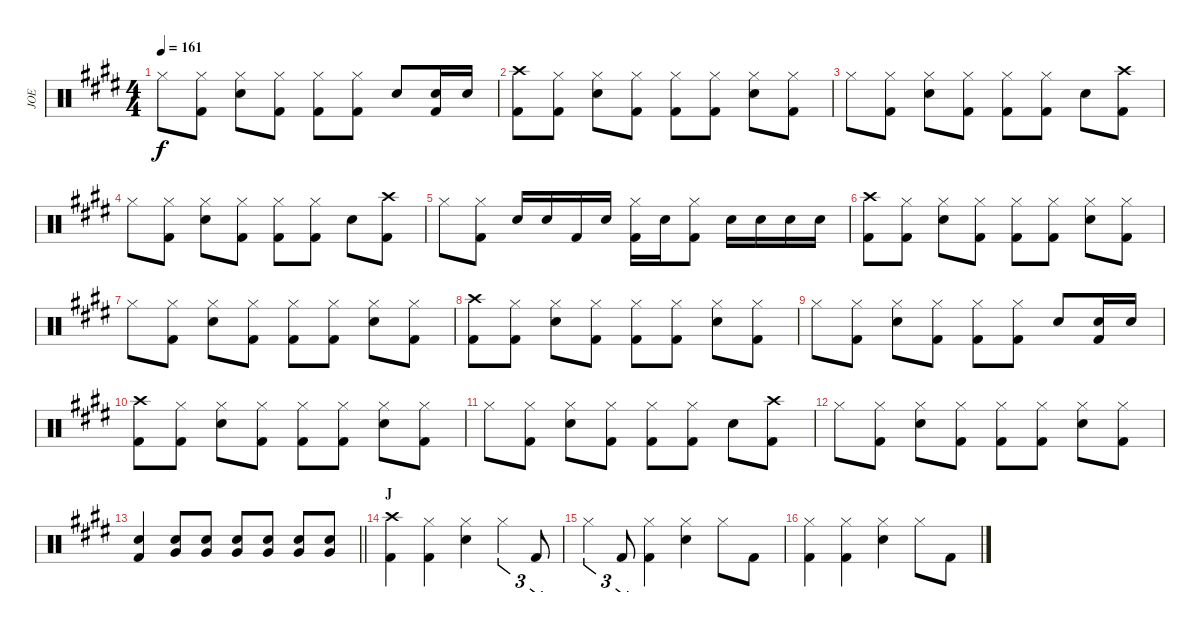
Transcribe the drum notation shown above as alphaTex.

\track ("JOE" "JOE") {instrument percussion}
\staff {score}
\articulation defaults
\ts (4 4)
\tempo 161
\clef neutral
\ks e "Hi-Hat (closed)".8{dy f}
("Hi-Hat (closed)" "Kick (hit) 2").8 ("Hi-Hat (closed)" "Snare (hit) 2").8 ("Hi-Hat (closed)" "Kick (hit) 2").8 ("Hi-Hat (closed)" "Kick (hit) 2").8 ("Hi-Hat (closed)" "Kick (hit) 2").8 "Snare (hit) 2".8 ("Snare (hit) 2" "Kick (hit) 2").16 "Snare (hit) 2".16 |
("Crash high (hit)" "Kick (hit) 2").8 ("Hi-Hat (closed)" "Kick (hit) 2").8 ("Hi-Hat (closed)" "Snare (hit) 2").8 ("Hi-Hat (closed)" "Kick (hit) 2").8 ("Hi-Hat (closed)" "Kick (hit) 2").8 ("Hi-Hat (closed)" "Kick (hit) 2").8 ("Hi-Hat (closed)" "Snare (hit) 2").8 ("Hi-Hat (closed)" "Kick (hit) 2").8 |
"Hi-Hat (closed)".8 ("Hi-Hat (closed)" "Kick (hit) 2").8 ("Hi-Hat (closed)" "Snare (hit) 2").8 ("Hi-Hat (closed)" "Kick (hit) 2").8 ("Hi-Hat (closed)" "Kick (hit) 2").8 ("Hi-Hat (closed)" "Kick (hit) 2").8 "Snare (hit) 2".8 ("Crash high (hit)" "Kick (hit) 2").8 |
"Hi-Hat (closed)".8 ("Hi-Hat (closed)" "Kick (hit) 2").8 ("Hi-Hat (closed)" "Snare (hit) 2").8 ("Hi-Hat (closed)" "Kick (hit) 2").8 ("Hi-Hat (closed)" "Kick (hit) 2").8 ("Hi-Hat (closed)" "Kick (hit) 2").8 "Snare (hit) 2".8 ("Crash high (hit)" "Kick (hit) 2").8 |
"Hi-Hat (closed)".8 ("Hi-Hat (closed)" "Kick (hit) 2").8 "Snare (hit) 2".16 "Snare (hit) 2".16 "Kick (hit) 2".16 "Snare (hit) 2".16 ("Hi-Hat (closed)" "Kick (hit) 2").16 "Snare (hit) 2".16 ("Hi-Hat (closed)" "Kick (hit) 2").8 "Snare (hit) 2".16 "Snare (hit) 2".16 "Snare (hit) 2".16 "Snare (hit) 2".16 |
("Crash high (hit)" "Kick (hit) 2").8 ("Hi-Hat (closed)" "Kick (hit) 2").8 ("Hi-Hat (closed)" "Snare (hit) 2").8 ("Hi-Hat (closed)" "Kick (hit) 2").8 ("Hi-Hat (closed)" "Kick (hit) 2").8 ("Hi-Hat (closed)" "Kick (hit) 2").8 ("Hi-Hat (closed)" "Snare (hit) 2").8 ("Hi-Hat (closed)" "Kick (hit) 2").8 |
"Hi-Hat (closed)".8 ("Hi-Hat (closed)" "Kick (hit) 2").8 ("Hi-Hat (closed)" "Snare (hit) 2").8 ("Hi-Hat (closed)" "Kick (hit) 2").8 ("Hi-Hat (closed)" "Kick (hit) 2").8 ("Hi-Hat (closed)" "Kick (hit) 2").8 ("Hi-Hat (closed)" "Snare (hit) 2").8 ("Hi-Hat (closed)" "Kick (hit) 2").8 |
("Crash high (hit)" "Kick (hit) 2").8 ("Hi-Hat (closed)" "Kick (hit) 2").8 ("Hi-Hat (closed)" "Snare (hit) 2").8 ("Hi-Hat (closed)" "Kick (hit) 2").8 ("Hi-Hat (closed)" "Kick (hit) 2").8 ("Hi-Hat (closed)" "Kick (hit) 2").8 ("Hi-Hat (closed)" "Snare (hit) 2").8 ("Hi-Hat (closed)" "Kick (hit) 2").8 |
"Hi-Hat (closed)".8 ("Hi-Hat (closed)" "Kick (hit) 2").8 ("Hi-Hat (closed)" "Snare (hit) 2").8 ("Hi-Hat (closed)" "Kick (hit) 2").8 ("Hi-Hat (closed)" "Kick (hit) 2").8 ("Hi-Hat (closed)" "Kick (hit) 2").8 "Snare (hit) 2".8 ("Snare (hit) 2" "Kick (hit) 2").16 "Snare (hit) 2".16 |
("Crash high (hit)" "Kick (hit) 2").8 ("Hi-Hat (closed)" "Kick (hit) 2").8 ("Hi-Hat (closed)" "Snare (hit) 2").8 ("Hi-Hat (closed)" "Kick (hit) 2").8 ("Hi-Hat (closed)" "Kick (hit) 2").8 ("Hi-Hat (closed)" "Kick (hit) 2").8 ("Hi-Hat (closed)" "Snare (hit) 2").8 ("Hi-Hat (closed)" "Kick (hit) 2").8 |
"Hi-Hat (closed)".8 ("Hi-Hat (closed)" "Kick (hit) 2").8 ("Hi-Hat (closed)" "Snare (hit) 2").8 ("Hi-Hat (closed)" "Kick (hit) 2").8 ("Hi-Hat (closed)" "Kick (hit) 2").8 ("Hi-Hat (closed)" "Kick (hit) 2").8 "Snare (hit) 2".8 ("Crash high (hit)" "Kick (hit) 2").8 |
"Hi-Hat (closed)".8 ("Hi-Hat (closed)" "Kick (hit) 2").8 ("Hi-Hat (closed)" "Snare (hit) 2").8 ("Hi-Hat (closed)" "Kick (hit) 2").8 ("Hi-Hat (closed)" "Kick (hit) 2").8 ("Hi-Hat (closed)" "Kick (hit) 2").8 ("Hi-Hat (closed)" "Snare (hit) 2").8 ("Hi-Hat (closed)" "Kick (hit) 2").8 |
\barLineRight lightlight
("Snare (hit) 2" "Kick (hit) 2").4 ("Snare (hit) 2" "Very Low Tom (hit)").8 ("Snare (hit) 2" "Very Low Tom (hit)").8 ("Snare (hit) 2" "Very Low Tom (hit)").8 ("Snare (hit) 2" "Very Low Tom (hit)").8 ("Snare (hit) 2" "Very Low Tom (hit)").8 ("Snare (hit) 2" "Very Low Tom (hit)").8 |
\section ("" "J")
("Crash high (hit)" "Kick (hit) 2").4 ("Hi-Hat (closed)" "Kick (hit) 2").4 ("Hi-Hat (closed)" "Snare (hit) 2").4 "Hi-Hat (closed)".4{tu (3 2)} "Kick (hit) 2".8{tu (3 2)} |
"Hi-Hat (closed)".4{tu (3 2)} "Kick (hit) 2".8{tu (3 2)} ("Hi-Hat (closed)" "Kick (hit) 2").4 ("Hi-Hat (closed)" "Snare (hit) 2").4 "Hi-Hat (closed)".8 "Kick (hit) 2".8 |
("Hi-Hat (closed)" "Kick (hit) 2").4 ("Hi-Hat (closed)" "Kick (hit) 2").4 ("Hi-Hat (closed)" "Snare (hit) 2").4 "Hi-Hat (closed)".8 "Kick (hit) 2".8
